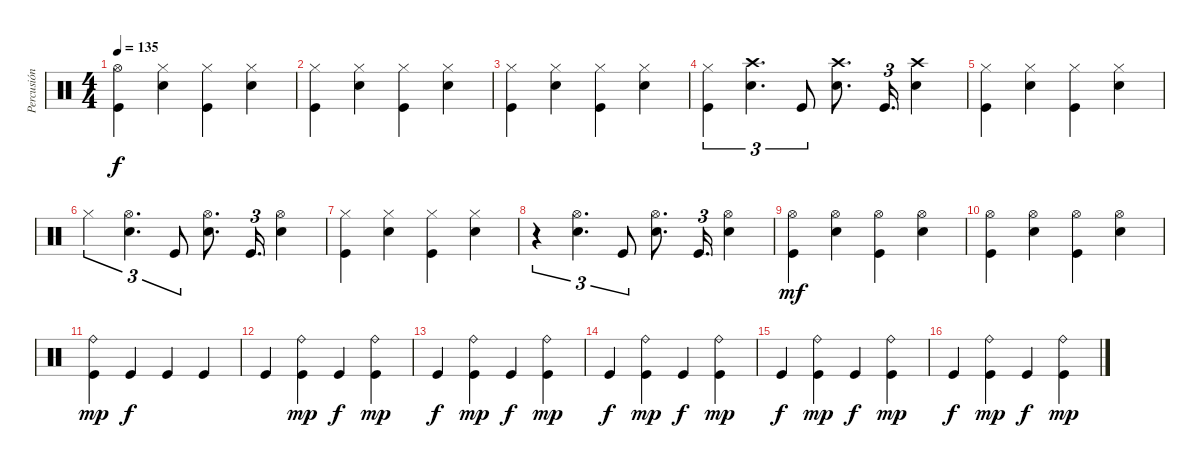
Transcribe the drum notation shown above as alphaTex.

\track ("Percusión" "Percusión") {instrument percussion}
\staff {score}
\articulation defaults
\ts (4 4)
\tempo 135
\clef neutral
\ks c
("Hi-Hat (open)" "Kick (hit)").4{dy f} ("Hi-Hat (closed)" "Snare (hit) 2").4 ("Hi-Hat (closed)" "Kick (hit)").4 ("Hi-Hat (closed)" "Snare (hit) 2").4 |
("Hi-Hat (closed)" "Kick (hit)").4 ("Hi-Hat (closed)" "Snare (hit) 2").4 ("Hi-Hat (closed)" "Kick (hit)").4 ("Hi-Hat (closed)" "Snare (hit) 2").4 |
("Hi-Hat (closed)" "Kick (hit)").4 ("Hi-Hat (closed)" "Snare (hit) 2").4 ("Hi-Hat (closed)" "Kick (hit)").4 ("Hi-Hat (closed)" "Snare (hit) 2").4 |
("Hi-Hat (closed)" "Kick (hit)").4{tu (3 2)} ("Crash high (hit)" "Snare (hit) 2").4{d tu (3 2)} "Kick (hit)".8{tu (3 2)} ("Crash high (hit)" "Snare (hit) 2").8{d} "Kick (hit)".16{d tu (3 2)} ("Crash high (hit)" "Snare (hit) 2").4 |
("Hi-Hat (closed)" "Kick (hit)").4 ("Hi-Hat (closed)" "Snare (hit) 2").4 ("Hi-Hat (closed)" "Kick (hit)").4 ("Hi-Hat (closed)" "Snare (hit) 2").4 |
"Hi-Hat (closed)".4{tu (3 2)} ("Hi-Hat (open)" "Snare (hit) 2").4{d tu (3 2)} "Kick (hit)".8{tu (3 2)} ("Hi-Hat (open)" "Snare (hit) 2").8{d} "Kick (hit)".16{d tu (3 2)} ("Hi-Hat (open)" "Snare (hit) 2").4 |
("Hi-Hat (closed)" "Kick (hit)").4 ("Hi-Hat (closed)" "Snare (hit) 2").4 ("Hi-Hat (closed)" "Kick (hit)").4 ("Hi-Hat (closed)" "Snare (hit) 2").4 |
r.4{tu (3 2)} ("Hi-Hat (open)" "Snare (hit) 2").4{d tu (3 2)} "Kick (hit)".8{tu (3 2)} ("Hi-Hat (open)" "Snare (hit) 2").8{d} "Kick (hit)".16{d tu (3 2)} ("Hi-Hat (open)" "Snare (hit) 2").4 |
("Hi-Hat (open)" "Kick (hit)").4{dy mf} ("Hi-Hat (open)" "Snare (hit) 2").4 ("Hi-Hat (open)" "Kick (hit)").4 ("Hi-Hat (open)" "Snare (hit) 2").4 |
("Hi-Hat (open)" "Kick (hit)").4 ("Hi-Hat (open)" "Snare (hit) 2").4 ("Hi-Hat (open)" "Kick (hit)").4 ("Hi-Hat (open)" "Snare (hit) 2").4 |
("Ride (bell)" "Kick (hit)").4{dy mp} "Kick (hit)".4{dy f} "Kick (hit)".4 "Kick (hit)".4 |
"Kick (hit)".4 ("Ride (bell)" "Kick (hit)").4{dy mp} "Kick (hit)".4{dy f} ("Ride (bell)" "Kick (hit)").4{dy mp} |
"Kick (hit)".4{dy f} ("Ride (bell)" "Kick (hit)").4{dy mp} "Kick (hit)".4{dy f} ("Ride (bell)" "Kick (hit)").4{dy mp} |
"Kick (hit)".4{dy f} ("Ride (bell)" "Kick (hit)").4{dy mp} "Kick (hit)".4{dy f} ("Ride (bell)" "Kick (hit)").4{dy mp} |
"Kick (hit)".4{dy f} ("Ride (bell)" "Kick (hit)").4{dy mp} "Kick (hit)".4{dy f} ("Ride (bell)" "Kick (hit)").4{dy mp} |
"Kick (hit)".4{dy f} ("Ride (bell)" "Kick (hit)").4{dy mp} "Kick (hit)".4{dy f} ("Ride (bell)" "Kick (hit)").4{dy mp}
